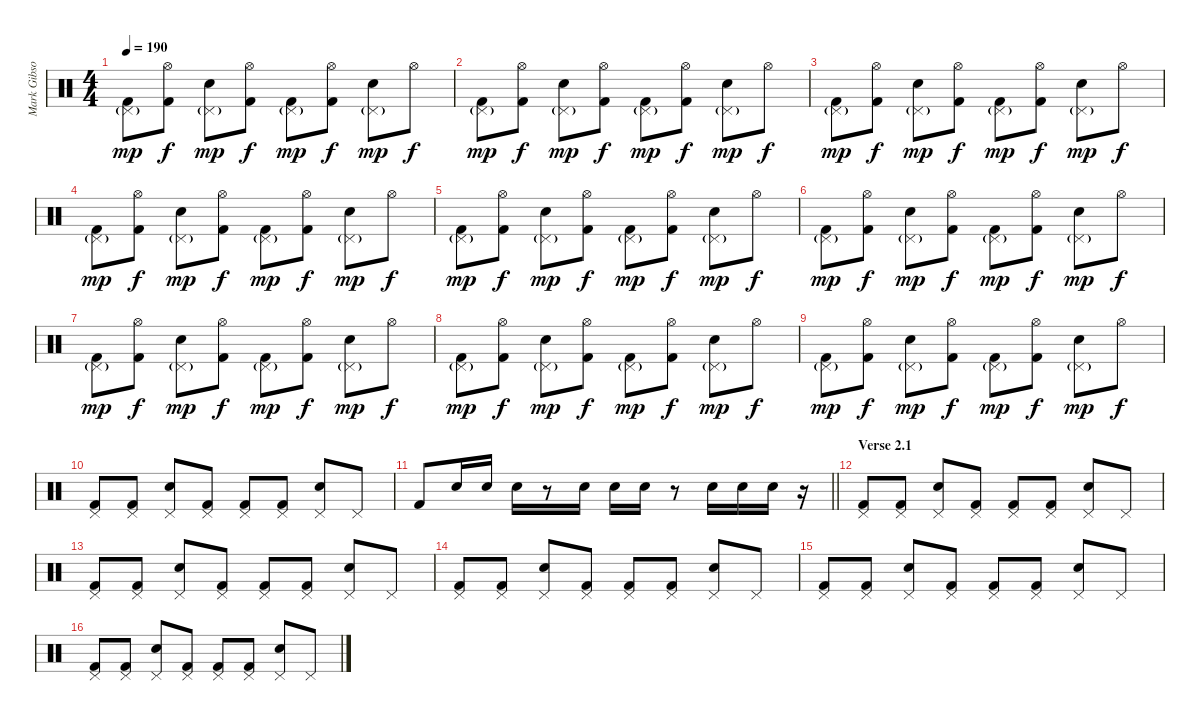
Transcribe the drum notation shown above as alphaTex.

\track ("Mark Gibson" "Mark Gibso") {instrument percussion}
\staff {score}
\articulation defaults
\ts (4 4)
\tempo 190
\clef neutral
\ks c
("Pedal Hi-Hat (hit)"{g} "Kick (hit) 2").8{dy mp} ("Hi-Hat (open)" "Kick (hit) 2").8{dy f} ("Pedal Hi-Hat (hit)"{g} "Electric Snare (hit)").8{dy mp} ("Hi-Hat (open)" "Kick (hit) 2").8{dy f} ("Pedal Hi-Hat (hit)"{g} "Kick (hit) 2").8{dy mp} ("Hi-Hat (open)" "Kick (hit) 2").8{dy f} ("Pedal Hi-Hat (hit)"{g} "Electric Snare (hit)").8{dy mp} "Hi-Hat (open)".8{dy f} |
("Pedal Hi-Hat (hit)"{g} "Kick (hit) 2").8{dy mp} ("Hi-Hat (open)" "Kick (hit) 2").8{dy f} ("Pedal Hi-Hat (hit)"{g} "Electric Snare (hit)").8{dy mp} ("Hi-Hat (open)" "Kick (hit) 2").8{dy f} ("Pedal Hi-Hat (hit)"{g} "Kick (hit) 2").8{dy mp} ("Hi-Hat (open)" "Kick (hit) 2").8{dy f} ("Pedal Hi-Hat (hit)"{g} "Electric Snare (hit)").8{dy mp} "Hi-Hat (open)".8{dy f} |
("Pedal Hi-Hat (hit)"{g} "Kick (hit) 2").8{dy mp} ("Hi-Hat (open)" "Kick (hit) 2").8{dy f} ("Pedal Hi-Hat (hit)"{g} "Electric Snare (hit)").8{dy mp} ("Hi-Hat (open)" "Kick (hit) 2").8{dy f} ("Pedal Hi-Hat (hit)"{g} "Kick (hit) 2").8{dy mp} ("Hi-Hat (open)" "Kick (hit) 2").8{dy f} ("Pedal Hi-Hat (hit)"{g} "Electric Snare (hit)").8{dy mp} "Hi-Hat (open)".8{dy f} |
("Pedal Hi-Hat (hit)"{g} "Kick (hit) 2").8{dy mp} ("Hi-Hat (open)" "Kick (hit) 2").8{dy f} ("Pedal Hi-Hat (hit)"{g} "Electric Snare (hit)").8{dy mp} ("Hi-Hat (open)" "Kick (hit) 2").8{dy f} ("Pedal Hi-Hat (hit)"{g} "Kick (hit) 2").8{dy mp} ("Hi-Hat (open)" "Kick (hit) 2").8{dy f} ("Pedal Hi-Hat (hit)"{g} "Electric Snare (hit)").8{dy mp} "Hi-Hat (open)".8{dy f} |
("Pedal Hi-Hat (hit)"{g} "Kick (hit) 2").8{dy mp} ("Hi-Hat (open)" "Kick (hit) 2").8{dy f} ("Pedal Hi-Hat (hit)"{g} "Electric Snare (hit)").8{dy mp} ("Hi-Hat (open)" "Kick (hit) 2").8{dy f} ("Pedal Hi-Hat (hit)"{g} "Kick (hit) 2").8{dy mp} ("Hi-Hat (open)" "Kick (hit) 2").8{dy f} ("Pedal Hi-Hat (hit)"{g} "Electric Snare (hit)").8{dy mp} "Hi-Hat (open)".8{dy f} |
("Pedal Hi-Hat (hit)"{g} "Kick (hit) 2").8{dy mp} ("Hi-Hat (open)" "Kick (hit) 2").8{dy f} ("Pedal Hi-Hat (hit)"{g} "Electric Snare (hit)").8{dy mp} ("Hi-Hat (open)" "Kick (hit) 2").8{dy f} ("Pedal Hi-Hat (hit)"{g} "Kick (hit) 2").8{dy mp} ("Hi-Hat (open)" "Kick (hit) 2").8{dy f} ("Pedal Hi-Hat (hit)"{g} "Electric Snare (hit)").8{dy mp} "Hi-Hat (open)".8{dy f} |
("Pedal Hi-Hat (hit)"{g} "Kick (hit) 2").8{dy mp} ("Hi-Hat (open)" "Kick (hit) 2").8{dy f} ("Pedal Hi-Hat (hit)"{g} "Electric Snare (hit)").8{dy mp} ("Hi-Hat (open)" "Kick (hit) 2").8{dy f} ("Pedal Hi-Hat (hit)"{g} "Kick (hit) 2").8{dy mp} ("Hi-Hat (open)" "Kick (hit) 2").8{dy f} ("Pedal Hi-Hat (hit)"{g} "Electric Snare (hit)").8{dy mp} "Hi-Hat (open)".8{dy f} |
("Pedal Hi-Hat (hit)"{g} "Kick (hit) 2").8{dy mp} ("Hi-Hat (open)" "Kick (hit) 2").8{dy f} ("Pedal Hi-Hat (hit)"{g} "Electric Snare (hit)").8{dy mp} ("Hi-Hat (open)" "Kick (hit) 2").8{dy f} ("Pedal Hi-Hat (hit)"{g} "Kick (hit) 2").8{dy mp} ("Hi-Hat (open)" "Kick (hit) 2").8{dy f} ("Pedal Hi-Hat (hit)"{g} "Electric Snare (hit)").8{dy mp} "Hi-Hat (open)".8{dy f} |
("Pedal Hi-Hat (hit)"{g} "Kick (hit) 2").8{dy mp} ("Hi-Hat (open)" "Kick (hit) 2").8{dy f} ("Pedal Hi-Hat (hit)"{g} "Electric Snare (hit)").8{dy mp} ("Hi-Hat (open)" "Kick (hit) 2").8{dy f} ("Pedal Hi-Hat (hit)"{g} "Kick (hit) 2").8{dy mp} ("Hi-Hat (open)" "Kick (hit) 2").8{dy f} ("Pedal Hi-Hat (hit)"{g} "Electric Snare (hit)").8{dy mp} "Hi-Hat (open)".8{dy f} |
("Pedal Hi-Hat (hit)" "Kick (hit) 2").8 ("Pedal Hi-Hat (hit)" "Kick (hit) 2").8 ("Pedal Hi-Hat (hit)" "Electric Snare (hit)").8 ("Pedal Hi-Hat (hit)" "Kick (hit) 2").8 ("Pedal Hi-Hat (hit)" "Kick (hit) 2").8 ("Pedal Hi-Hat (hit)" "Kick (hit) 2").8 ("Pedal Hi-Hat (hit)" "Electric Snare (hit)").8 "Pedal Hi-Hat (hit)".8 |
\barLineRight lightlight "Kick (hit) 2".8 "Electric Snare (hit)".16 "Electric Snare (hit)".16 "Electric Snare (hit)".16
r.8 "Electric Snare (hit)".16 "Electric Snare (hit)".16 "Electric Snare (hit)".16 r.8 "Electric Snare (hit)".16 "Electric Snare (hit)".16 "Electric Snare (hit)".16 r.16 |
\section ("" "Verse 2.1")
("Pedal Hi-Hat (hit)" "Kick (hit) 2").8 ("Pedal Hi-Hat (hit)" "Kick (hit) 2").8 ("Pedal Hi-Hat (hit)" "Electric Snare (hit)").8 ("Pedal Hi-Hat (hit)" "Kick (hit) 2").8 ("Pedal Hi-Hat (hit)" "Kick (hit) 2").8 ("Pedal Hi-Hat (hit)" "Kick (hit) 2").8 ("Pedal Hi-Hat (hit)" "Electric Snare (hit)").8 "Pedal Hi-Hat (hit)".8 |
("Pedal Hi-Hat (hit)" "Kick (hit) 2").8 ("Pedal Hi-Hat (hit)" "Kick (hit) 2").8 ("Pedal Hi-Hat (hit)" "Electric Snare (hit)").8 ("Pedal Hi-Hat (hit)" "Kick (hit) 2").8 ("Pedal Hi-Hat (hit)" "Kick (hit) 2").8 ("Pedal Hi-Hat (hit)" "Kick (hit) 2").8 ("Pedal Hi-Hat (hit)" "Electric Snare (hit)").8 "Pedal Hi-Hat (hit)".8 |
("Pedal Hi-Hat (hit)" "Kick (hit) 2").8 ("Pedal Hi-Hat (hit)" "Kick (hit) 2").8 ("Pedal Hi-Hat (hit)" "Electric Snare (hit)").8 ("Pedal Hi-Hat (hit)" "Kick (hit) 2").8 ("Pedal Hi-Hat (hit)" "Kick (hit) 2").8 ("Pedal Hi-Hat (hit)" "Kick (hit) 2").8 ("Pedal Hi-Hat (hit)" "Electric Snare (hit)").8 "Pedal Hi-Hat (hit)".8 |
("Pedal Hi-Hat (hit)" "Kick (hit) 2").8 ("Pedal Hi-Hat (hit)" "Kick (hit) 2").8 ("Pedal Hi-Hat (hit)" "Electric Snare (hit)").8 ("Pedal Hi-Hat (hit)" "Kick (hit) 2").8 ("Pedal Hi-Hat (hit)" "Kick (hit) 2").8 ("Pedal Hi-Hat (hit)" "Kick (hit) 2").8 ("Pedal Hi-Hat (hit)" "Electric Snare (hit)").8 "Pedal Hi-Hat (hit)".8 |
("Pedal Hi-Hat (hit)" "Kick (hit) 2").8 ("Pedal Hi-Hat (hit)" "Kick (hit) 2").8 ("Pedal Hi-Hat (hit)" "Electric Snare (hit)").8 ("Pedal Hi-Hat (hit)" "Kick (hit) 2").8 ("Pedal Hi-Hat (hit)" "Kick (hit) 2").8 ("Pedal Hi-Hat (hit)" "Kick (hit) 2").8 ("Pedal Hi-Hat (hit)" "Electric Snare (hit)").8 "Pedal Hi-Hat (hit)".8
